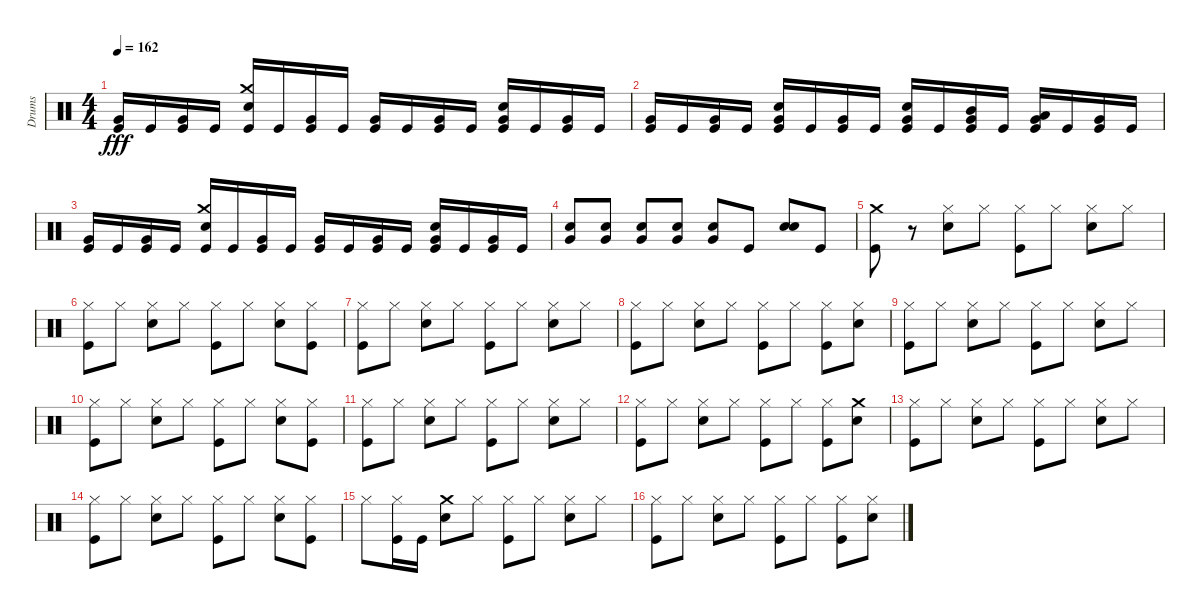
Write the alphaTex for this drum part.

\track ("Drums" "Drums") {instrument percussion}
\staff {score}
\articulation defaults
\ts (4 4)
\tempo 162
\clef neutral
\ks c
("Very Low Tom (hit)" "Kick (hit)").16{dy fff} "Kick (hit)".16 ("Very Low Tom (hit)" "Kick (hit)").16 "Kick (hit)".16 ("Crash medium (hit)" "Snare (hit) 2" "Kick (hit)").16 "Kick (hit)".16 ("Very Low Tom (hit)" "Kick (hit)").16 "Kick (hit)".16 ("Very Low Tom (hit)" "Kick (hit)").16 "Kick (hit)".16 ("Very Low Tom (hit)" "Kick (hit)").16 "Kick (hit)".16 ("Snare (hit) 2" "Very Low Tom (hit)" "Kick (hit)").16 "Kick (hit)".16 ("Very Low Tom (hit)" "Kick (hit)").16 "Kick (hit)".16 |
("Very Low Tom (hit)" "Kick (hit)").16 "Kick (hit)".16 ("Very Low Tom (hit)" "Kick (hit)").16 "Kick (hit)".16 ("Snare (hit) 2" "Very Low Tom (hit)" "Kick (hit)").16 "Kick (hit)".16 ("Very Low Tom (hit)" "Kick (hit)").16 "Kick (hit)".16 ("Snare (hit) 2" "Very Low Tom (hit)" "Kick (hit)").16 "Kick (hit)".16 ("Mid Tom (hit)" "Very Low Tom (hit)" "Kick (hit)").16 "Kick (hit)".16 ("Low Tom (hit)" "Very Low Tom (hit)" "Kick (hit)").16 "Kick (hit)".16 ("Very Low Tom (hit)" "Kick (hit)").16 "Kick (hit)".16 |
("Very Low Tom (hit)" "Kick (hit)").16 "Kick (hit)".16 ("Very Low Tom (hit)" "Kick (hit)").16 "Kick (hit)".16 ("Crash medium (hit)" "Snare (hit) 2" "Kick (hit)").16 "Kick (hit)".16 ("Very Low Tom (hit)" "Kick (hit)").16 "Kick (hit)".16 ("Very Low Tom (hit)" "Kick (hit)").16 "Kick (hit)".16 ("Very Low Tom (hit)" "Kick (hit)").16 "Kick (hit)".16 ("Snare (hit) 2" "Very Low Tom (hit)" "Kick (hit)").16 "Kick (hit)".16 ("Very Low Tom (hit)" "Kick (hit)").16 "Kick (hit)".16 |
("Very Low Tom (hit)" "Snare (hit) 2").8 ("Snare (hit) 2" "Very Low Tom (hit)").8 ("Snare (hit) 2" "Very Low Tom (hit)").8 ("Snare (hit) 2" "Very Low Tom (hit)").8 ("Very Low Tom (hit)" "Snare (hit) 2").8 "Kick (hit)".8 ("Snare (hit) 2" "Snare (hit) 2").8 "Kick (hit)".8 |
("Crash medium (hit)" "Kick (hit)").8 r.8 ("Snare (hit) 2" "Hi-Hat (closed)").8 "Hi-Hat (closed)".8 ("Kick (hit)" "Hi-Hat (closed)").8 "Hi-Hat (closed)".8 ("Snare (hit) 2" "Hi-Hat (closed)").8 "Hi-Hat (closed)".8 |
("Hi-Hat (closed)" "Kick (hit)").8 "Hi-Hat (closed)".8 ("Snare (hit) 2" "Hi-Hat (closed)").8 "Hi-Hat (closed)".8 ("Kick (hit)" "Hi-Hat (closed)").8 "Hi-Hat (closed)".8 ("Snare (hit) 2" "Hi-Hat (closed)").8 ("Kick (hit)" "Hi-Hat (closed)").8 |
("Hi-Hat (closed)" "Kick (hit)").8 "Hi-Hat (closed)".8 ("Snare (hit) 2" "Hi-Hat (closed)").8 "Hi-Hat (closed)".8 ("Kick (hit)" "Hi-Hat (closed)").8 "Hi-Hat (closed)".8 ("Snare (hit) 2" "Hi-Hat (closed)").8 "Hi-Hat (closed)".8 |
("Hi-Hat (closed)" "Kick (hit)").8 "Hi-Hat (closed)".8 ("Snare (hit) 2" "Hi-Hat (closed)").8 "Hi-Hat (closed)".8 ("Kick (hit)" "Hi-Hat (closed)").8 "Hi-Hat (closed)".8 ("Kick (hit)" "Hi-Hat (closed)").8 ("Snare (hit) 2" "Hi-Hat (closed)").8 |
("Hi-Hat (closed)" "Kick (hit)").8 "Hi-Hat (closed)".8 ("Snare (hit) 2" "Hi-Hat (closed)").8 "Hi-Hat (closed)".8 ("Kick (hit)" "Hi-Hat (closed)").8 "Hi-Hat (closed)".8 ("Snare (hit) 2" "Hi-Hat (closed)").8 "Hi-Hat (closed)".8 |
("Hi-Hat (closed)" "Kick (hit)").8 "Hi-Hat (closed)".8 ("Snare (hit) 2" "Hi-Hat (closed)").8 "Hi-Hat (closed)".8 ("Kick (hit)" "Hi-Hat (closed)").8 "Hi-Hat (closed)".8 ("Snare (hit) 2" "Hi-Hat (closed)").8 ("Kick (hit)" "Hi-Hat (closed)").8 |
("Hi-Hat (closed)" "Kick (hit)").8 "Hi-Hat (closed)".8 ("Snare (hit) 2" "Hi-Hat (closed)").8 "Hi-Hat (closed)".8 ("Kick (hit)" "Hi-Hat (closed)").8 "Hi-Hat (closed)".8 ("Snare (hit) 2" "Hi-Hat (closed)").8 "Hi-Hat (closed)".8 |
("Hi-Hat (closed)" "Kick (hit)").8 "Hi-Hat (closed)".8 ("Snare (hit) 2" "Hi-Hat (closed)").8 "Hi-Hat (closed)".8 ("Kick (hit)" "Hi-Hat (closed)").8 "Hi-Hat (closed)".8 ("Kick (hit)" "Hi-Hat (closed)").8 ("Snare (hit) 2" "Crash medium (hit)").8 |
("Hi-Hat (closed)" "Kick (hit)").8 "Hi-Hat (closed)".8 ("Snare (hit) 2" "Hi-Hat (closed)").8 "Hi-Hat (closed)".8 ("Kick (hit)" "Hi-Hat (closed)").8 "Hi-Hat (closed)".8 ("Snare (hit) 2" "Hi-Hat (closed)").8 "Hi-Hat (closed)".8 |
("Hi-Hat (closed)" "Kick (hit)").8 "Hi-Hat (closed)".8 ("Snare (hit) 2" "Hi-Hat (closed)").8 "Hi-Hat (closed)".8 ("Kick (hit)" "Hi-Hat (closed)").8 "Hi-Hat (closed)".8 ("Snare (hit) 2" "Hi-Hat (closed)").8 ("Kick (hit)" "Hi-Hat (closed)").8 |
"Hi-Hat (closed)".8 ("Kick (hit)" "Hi-Hat (closed)").16 "Kick (hit)".16 ("Crash medium (hit)" "Snare (hit) 2").8 "Hi-Hat (closed)".8 ("Kick (hit)" "Hi-Hat (closed)").8 "Hi-Hat (closed)".8 ("Snare (hit) 2" "Hi-Hat (closed)").8 "Hi-Hat (closed)".8 |
("Hi-Hat (closed)" "Kick (hit)").8 "Hi-Hat (closed)".8 ("Snare (hit) 2" "Hi-Hat (closed)").8 "Hi-Hat (closed)".8 ("Kick (hit)" "Hi-Hat (closed)").8 "Hi-Hat (closed)".8 ("Kick (hit)" "Hi-Hat (closed)").8 ("Snare (hit) 2" "Hi-Hat (closed)").8
